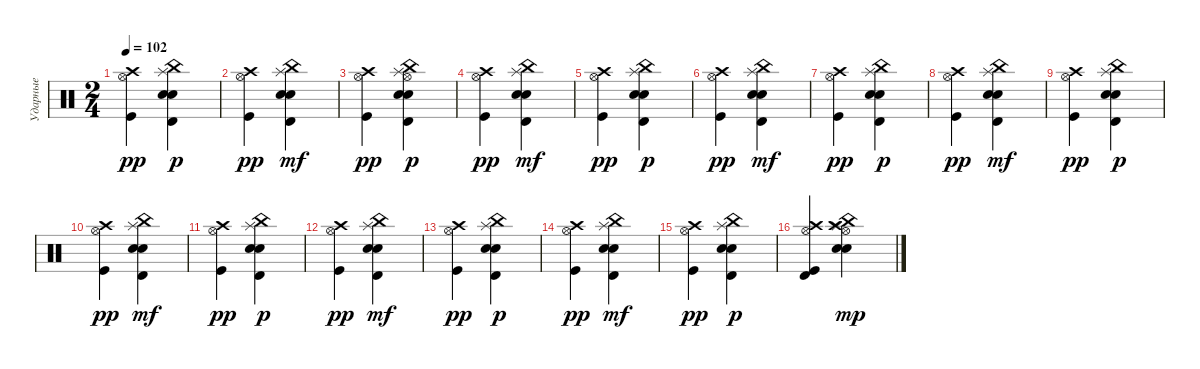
\track ("Ударные" "Ударные") {instrument percussion}
\staff {score}
\articulation defaults
\ts (2 4)
\tempo 102
\clef neutral
\ks c
("Kick (hit)" "Hi-Hat (open)" "Crash high (hit)").4{dy pp} ("Splash (hit)" "China (hit)" "Snare (hit) 2" "Electric Snare (hit)" "Timbale high (hit)").4{dy p} |
("Kick (hit)" "Hi-Hat (open)" "Crash high (hit)").4{dy pp} ("Splash (hit)" "China (hit)" "Snare (hit) 2" "Timbale high (hit)" "Electric Snare (hit)").4{dy mf} |
("Kick (hit)" "Hi-Hat (open)" "Crash high (hit)").4{dy pp} ("Hi-Hat (open)" "Splash (hit)" "China (hit)" "Snare (hit) 2" "Electric Snare (hit)" "Timbale high (hit)").4{dy p} |
("Kick (hit)" "Hi-Hat (open)" "Crash high (hit)").4{dy pp} ("Splash (hit)" "China (hit)" "Snare (hit) 2" "Timbale high (hit)" "Electric Snare (hit)").4{dy mf} |
("Kick (hit)" "Hi-Hat (open)" "Crash high (hit)").4{dy pp} ("Splash (hit)" "China (hit)" "Snare (hit) 2" "Electric Snare (hit)" "Timbale high (hit)").4{dy p} |
("Kick (hit)" "Hi-Hat (open)" "Crash high (hit)").4{dy pp} ("Splash (hit)" "China (hit)" "Snare (hit) 2" "Timbale high (hit)" "Electric Snare (hit)").4{dy mf} |
("Kick (hit)" "Hi-Hat (open)" "Crash high (hit)").4{dy pp} ("Splash (hit)" "China (hit)" "Snare (hit) 2" "Electric Snare (hit)" "Timbale high (hit)").4{dy p} |
("Kick (hit)" "Hi-Hat (open)" "Crash high (hit)").4{dy pp} ("Splash (hit)" "China (hit)" "Snare (hit) 2" "Timbale high (hit)" "Electric Snare (hit)").4{dy mf} |
("Kick (hit)" "Hi-Hat (open)" "Crash high (hit)").4{dy pp} ("Splash (hit)" "China (hit)" "Snare (hit) 2" "Electric Snare (hit)" "Timbale high (hit)").4{dy p} |
("Kick (hit)" "Hi-Hat (open)" "Crash high (hit)").4{dy pp} ("Splash (hit)" "China (hit)" "Snare (hit) 2" "Timbale high (hit)" "Electric Snare (hit)").4{dy mf} |
("Kick (hit)" "Hi-Hat (open)" "Crash high (hit)").4{dy pp} ("Splash (hit)" "China (hit)" "Snare (hit) 2" "Electric Snare (hit)" "Timbale high (hit)").4{dy p} |
("Kick (hit)" "Hi-Hat (open)" "Crash high (hit)").4{dy pp} ("Splash (hit)" "China (hit)" "Snare (hit) 2" "Timbale high (hit)" "Electric Snare (hit)").4{dy mf} |
("Kick (hit)" "Hi-Hat (open)" "Crash high (hit)").4{dy pp} ("Splash (hit)" "China (hit)" "Snare (hit) 2" "Electric Snare (hit)" "Timbale high (hit)").4{dy p} |
("Kick (hit)" "Hi-Hat (open)" "Crash high (hit)").4{dy pp} ("Splash (hit)" "China (hit)" "Snare (hit) 2" "Timbale high (hit)" "Electric Snare (hit)").4{dy mf} |
("Kick (hit)" "Hi-Hat (open)" "Crash high (hit)").4{dy pp} ("Splash (hit)" "China (hit)" "Snare (hit) 2" "Electric Snare (hit)" "Timbale high (hit)").4{dy p} |
("Kick (hit)" "Hi-Hat (open)" "Crash high (hit)" "Timbale high (hit)").4 ("Electric Snare (hit)" "Snare (hit) 2" "Hi-Hat (open)" "China (hit)" "Splash (hit)" "Crash high (hit)").4{dy mp}
